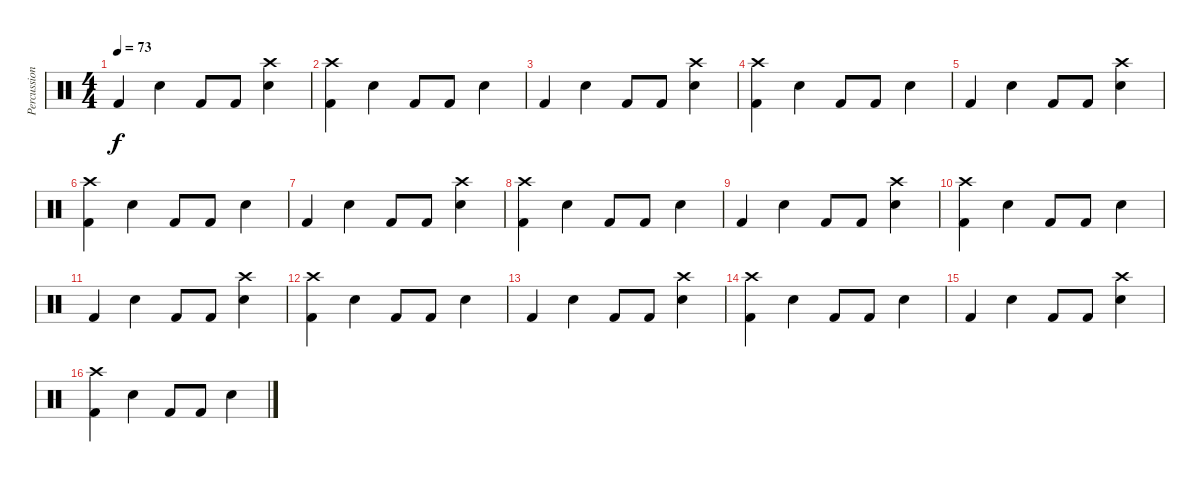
\track ("Percussion" "Percussion") {instrument percussion}
\staff {score}
\articulation defaults
\ts (4 4)
\tempo 73
\clef neutral
\ks c "Kick (hit) 2".4{dy f} "Snare (hit) 2".4 "Kick (hit) 2".8 "Kick (hit) 2".8
("Snare (hit) 2" "Crash high (hit)").4 |
("Kick (hit) 2" "Crash high (hit)").4 "Snare (hit) 2".4 "Kick (hit) 2".8 "Kick (hit) 2".8 "Snare (hit) 2".4 |
"Kick (hit) 2".4 "Snare (hit) 2".4 "Kick (hit) 2".8 "Kick (hit) 2".8 ("Snare (hit) 2" "Crash high (hit)").4 |
("Kick (hit) 2" "Crash high (hit)").4 "Snare (hit) 2".4 "Kick (hit) 2".8 "Kick (hit) 2".8 "Snare (hit) 2".4 |
"Kick (hit) 2".4 "Snare (hit) 2".4 "Kick (hit) 2".8 "Kick (hit) 2".8 ("Snare (hit) 2" "Crash high (hit)").4 |
("Kick (hit) 2" "Crash high (hit)").4 "Snare (hit) 2".4 "Kick (hit) 2".8 "Kick (hit) 2".8 "Snare (hit) 2".4 |
"Kick (hit) 2".4 "Snare (hit) 2".4 "Kick (hit) 2".8 "Kick (hit) 2".8 ("Snare (hit) 2" "Crash high (hit)").4 |
("Kick (hit) 2" "Crash high (hit)").4 "Snare (hit) 2".4 "Kick (hit) 2".8 "Kick (hit) 2".8 "Snare (hit) 2".4 |
"Kick (hit) 2".4 "Snare (hit) 2".4 "Kick (hit) 2".8 "Kick (hit) 2".8 ("Snare (hit) 2" "Crash high (hit)").4 |
("Kick (hit) 2" "Crash high (hit)").4 "Snare (hit) 2".4 "Kick (hit) 2".8 "Kick (hit) 2".8 "Snare (hit) 2".4 |
"Kick (hit) 2".4 "Snare (hit) 2".4 "Kick (hit) 2".8 "Kick (hit) 2".8 ("Snare (hit) 2" "Crash high (hit)").4 |
("Kick (hit) 2" "Crash high (hit)").4 "Snare (hit) 2".4 "Kick (hit) 2".8 "Kick (hit) 2".8 "Snare (hit) 2".4 |
"Kick (hit) 2".4 "Snare (hit) 2".4 "Kick (hit) 2".8 "Kick (hit) 2".8 ("Snare (hit) 2" "Crash high (hit)").4 |
("Kick (hit) 2" "Crash high (hit)").4 "Snare (hit) 2".4 "Kick (hit) 2".8 "Kick (hit) 2".8 "Snare (hit) 2".4 |
"Kick (hit) 2".4 "Snare (hit) 2".4 "Kick (hit) 2".8 "Kick (hit) 2".8 ("Snare (hit) 2" "Crash high (hit)").4 |
("Kick (hit) 2" "Crash high (hit)").4 "Snare (hit) 2".4 "Kick (hit) 2".8 "Kick (hit) 2".8 "Snare (hit) 2".4
